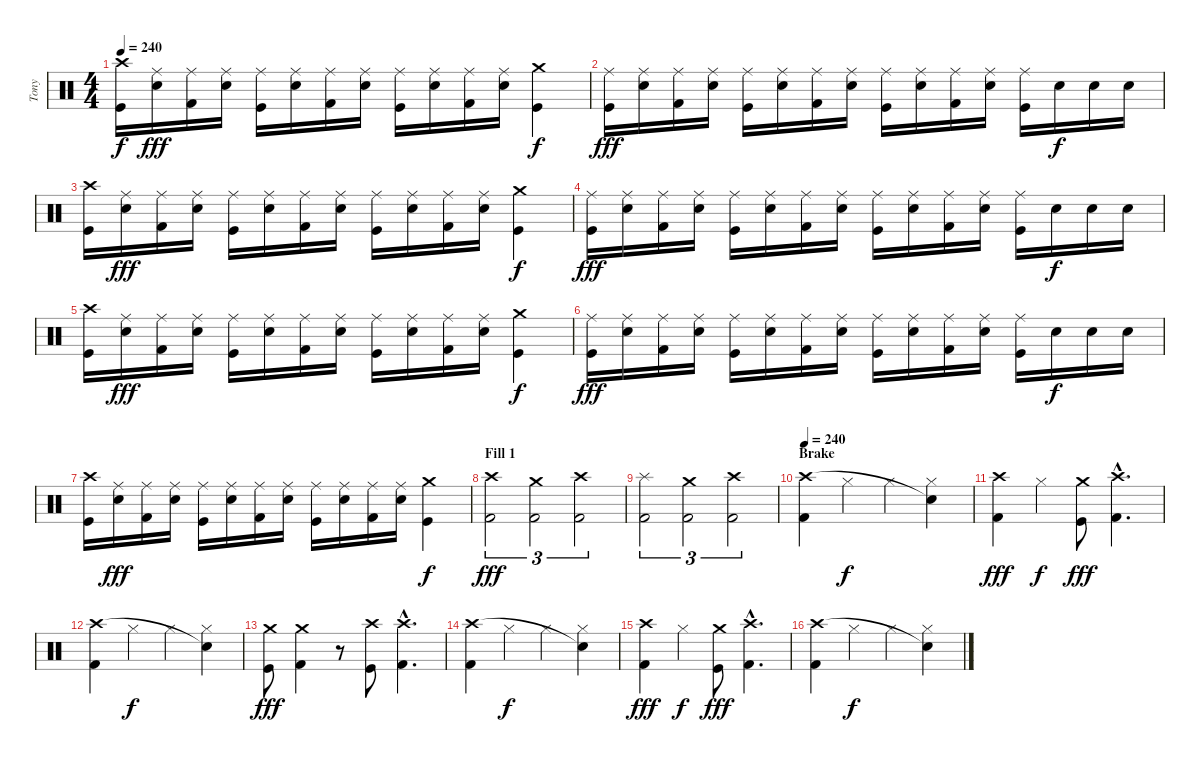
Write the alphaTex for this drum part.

\track ("Tony" "Tony") {instrument percussion}
\staff {score}
\articulation defaults
\ts (4 4)
\tempo 240
\clef neutral
\ks c
("Kick (hit)" "Crash high (hit)").16{dy f} ("Snare (hit) 2" "Ride (middle)").16{dy fff} ("Kick (hit) 2" "Ride (middle)").16 ("Snare (hit) 2" "Ride (middle)").16 ("Kick (hit)" "Ride (middle)").16 ("Snare (hit) 2" "Ride (middle)").16 ("Kick (hit) 2" "Ride (middle)").16 ("Snare (hit) 2" "Ride (middle)").16 ("Kick (hit)" "Ride (middle)").16 ("Snare (hit) 2" "Ride (middle)").16 ("Kick (hit) 2" "Ride (middle)").16 ("Snare (hit) 2" "Ride (middle)").16 ("Kick (hit)" "Crash medium (hit)").4{dy f} |
("Kick (hit)" "Ride (middle)").16{dy fff} ("Snare (hit) 2" "Ride (middle)").16 ("Kick (hit) 2" "Ride (middle)").16 ("Snare (hit) 2" "Ride (middle)").16 ("Kick (hit)" "Ride (middle)").16 ("Snare (hit) 2" "Ride (middle)").16 ("Kick (hit) 2" "Ride (middle)").16 ("Snare (hit) 2" "Ride (middle)").16 ("Kick (hit)" "Ride (middle)").16 ("Snare (hit) 2" "Ride (middle)").16 ("Kick (hit) 2" "Ride (middle)").16 ("Snare (hit) 2" "Ride (middle)").16 ("Kick (hit)" "Ride (middle)").16 "Snare (hit) 2".16{dy f} "Snare (hit) 2".16 "Snare (hit) 2".16 |
("Kick (hit)" "Crash high (hit)").16 ("Snare (hit) 2" "Ride (middle)").16{dy fff} ("Kick (hit) 2" "Ride (middle)").16 ("Snare (hit) 2" "Ride (middle)").16 ("Kick (hit)" "Ride (middle)").16 ("Snare (hit) 2" "Ride (middle)").16 ("Kick (hit) 2" "Ride (middle)").16 ("Snare (hit) 2" "Ride (middle)").16 ("Kick (hit)" "Ride (middle)").16 ("Snare (hit) 2" "Ride (middle)").16 ("Kick (hit) 2" "Ride (middle)").16 ("Snare (hit) 2" "Ride (middle)").16 ("Kick (hit)" "Crash medium (hit)").4{dy f} |
("Kick (hit)" "Ride (middle)").16{dy fff} ("Snare (hit) 2" "Ride (middle)").16 ("Kick (hit) 2" "Ride (middle)").16 ("Snare (hit) 2" "Ride (middle)").16 ("Kick (hit)" "Ride (middle)").16 ("Snare (hit) 2" "Ride (middle)").16 ("Kick (hit) 2" "Ride (middle)").16 ("Snare (hit) 2" "Ride (middle)").16 ("Kick (hit)" "Ride (middle)").16 ("Snare (hit) 2" "Ride (middle)").16 ("Kick (hit) 2" "Ride (middle)").16 ("Snare (hit) 2" "Ride (middle)").16 ("Kick (hit)" "Ride (middle)").16 "Snare (hit) 2".16{dy f} "Snare (hit) 2".16 "Snare (hit) 2".16 |
("Kick (hit)" "Crash high (hit)").16 ("Snare (hit) 2" "Ride (middle)").16{dy fff} ("Kick (hit) 2" "Ride (middle)").16 ("Snare (hit) 2" "Ride (middle)").16 ("Kick (hit)" "Ride (middle)").16 ("Snare (hit) 2" "Ride (middle)").16 ("Kick (hit) 2" "Ride (middle)").16 ("Snare (hit) 2" "Ride (middle)").16 ("Kick (hit)" "Ride (middle)").16 ("Snare (hit) 2" "Ride (middle)").16 ("Kick (hit) 2" "Ride (middle)").16 ("Snare (hit) 2" "Ride (middle)").16 ("Kick (hit)" "Crash medium (hit)").4{dy f} |
("Kick (hit)" "Ride (middle)").16{dy fff} ("Snare (hit) 2" "Ride (middle)").16 ("Kick (hit) 2" "Ride (middle)").16 ("Snare (hit) 2" "Ride (middle)").16 ("Kick (hit)" "Ride (middle)").16 ("Snare (hit) 2" "Ride (middle)").16 ("Kick (hit) 2" "Ride (middle)").16 ("Snare (hit) 2" "Ride (middle)").16 ("Kick (hit)" "Ride (middle)").16 ("Snare (hit) 2" "Ride (middle)").16 ("Kick (hit) 2" "Ride (middle)").16 ("Snare (hit) 2" "Ride (middle)").16 ("Kick (hit)" "Ride (middle)").16 "Snare (hit) 2".16{dy f} "Snare (hit) 2".16 "Snare (hit) 2".16 |
("Kick (hit)" "Crash high (hit)").16 ("Snare (hit) 2" "Ride (middle)").16{dy fff} ("Kick (hit) 2" "Ride (middle)").16 ("Snare (hit) 2" "Ride (middle)").16 ("Kick (hit)" "Ride (middle)").16 ("Snare (hit) 2" "Ride (middle)").16 ("Kick (hit) 2" "Ride (middle)").16 ("Snare (hit) 2" "Ride (middle)").16 ("Kick (hit)" "Ride (middle)").16 ("Snare (hit) 2" "Ride (middle)").16 ("Kick (hit) 2" "Ride (middle)").16 ("Snare (hit) 2" "Ride (middle)").16 ("Kick (hit)" "Crash medium (hit)").4{dy f} |
\section ("" "Fill 1")
("Kick (hit) 2" "Crash high (hit)").2{tu (3 2) dy fff} ("Kick (hit) 2" "Crash medium (hit)").2{tu (3 2)} ("Kick (hit) 2" "Crash high (hit)").2{tu (3 2)} |
("Kick (hit) 2" "Splash (hit)").2{tu (3 2)} ("Kick (hit) 2" "Crash medium (hit)").2{tu (3 2)} ("Kick (hit) 2" "Crash high (hit)").2{tu (3 2)} |
\section ("" "Brake")
\tempo 240
("Kick (hit) 2" "Crash high (hit)").4 "Hi-Hat (closed)".4{dy f} "Hi-Hat (closed)".4 ("Hi-Hat (closed)" "Snare (hit)"{t}).4 |
("Kick (hit) 2" "Crash high (hit)").4{dy fff} "Hi-Hat (closed)".4{dy f} ("Kick (hit)" "Crash medium (hit)").8{dy fff} ("Kick (hit) 2"{hac} "Crash high (hit)"{hac}).4{d} |
("Kick (hit) 2" "Crash high (hit)").4 "Hi-Hat (closed)".4{dy f} "Hi-Hat (closed)".4 ("Hi-Hat (closed)" "Snare (hit)"{t}).4 |
("Kick (hit)" "Crash medium (hit)").8{dy fff} ("Kick (hit) 2" "Crash medium (hit)").4 r.8 ("Kick (hit)" "Crash high (hit)").8 ("Kick (hit) 2"{hac} "Crash high (hit)"{hac}).4{d} |
("Kick (hit) 2" "Crash high (hit)").4 "Hi-Hat (closed)".4{dy f} "Hi-Hat (closed)".4 ("Hi-Hat (closed)" "Snare (hit)"{t}).4 |
("Kick (hit) 2" "Crash high (hit)").4{dy fff} "Hi-Hat (closed)".4{dy f} ("Kick (hit)" "Crash medium (hit)").8{dy fff} ("Kick (hit) 2"{hac} "Crash high (hit)"{hac}).4{d} |
("Kick (hit) 2" "Crash high (hit)").4 "Hi-Hat (closed)".4{dy f} "Hi-Hat (closed)".4 ("Hi-Hat (closed)" "Snare (hit)"{t}).4
